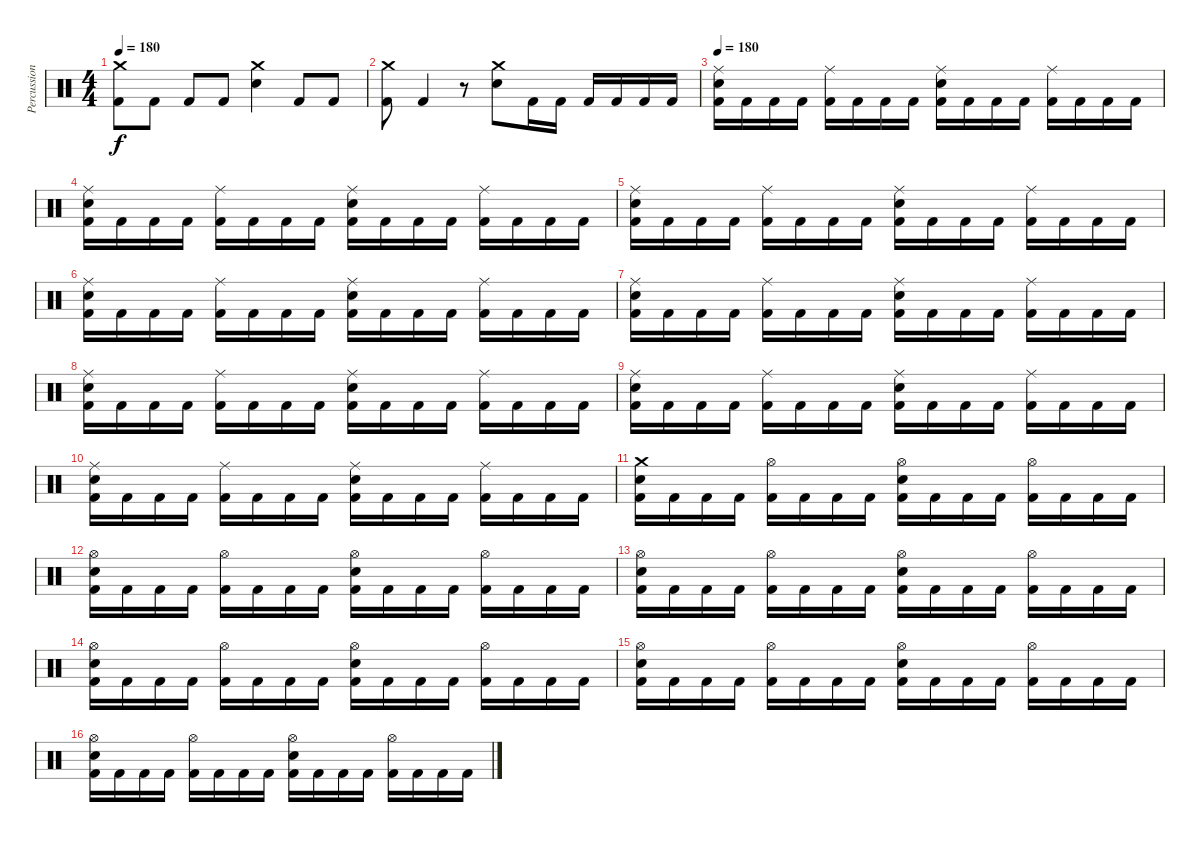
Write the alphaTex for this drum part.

\track ("Percussion" "Percussion") {instrument percussion}
\staff {score}
\articulation defaults
\ts (4 4)
\tempo 180
\clef neutral
\ks c
("Crash medium (hit)" "Kick (hit) 2").8{dy f} "Kick (hit) 2".8 "Kick (hit) 2".8 "Kick (hit) 2".8 ("Crash medium (hit)" "Electric Snare (hit)").4 "Kick (hit) 2".8 "Kick (hit) 2".8 |
("Crash medium (hit)" "Kick (hit) 2").8 "Kick (hit) 2".4 r.8 ("Crash medium (hit)" "Electric Snare (hit)").8 "Kick (hit) 2".16 "Kick (hit) 2".16 "Kick (hit) 2".16 "Kick (hit) 2".16 "Kick (hit) 2".16 "Kick (hit) 2".16 |
\tempo 180
("Ride (middle)" "Electric Snare (hit)" "Kick (hit) 2").16 "Kick (hit) 2".16 "Kick (hit) 2".16 "Kick (hit) 2".16 ("Ride (middle)" "Kick (hit) 2").16 "Kick (hit) 2".16 "Kick (hit) 2".16 "Kick (hit) 2".16 ("Ride (middle)" "Electric Snare (hit)" "Kick (hit) 2").16 "Kick (hit) 2".16 "Kick (hit) 2".16 "Kick (hit) 2".16 ("Ride (middle)" "Kick (hit) 2").16 "Kick (hit) 2".16 "Kick (hit) 2".16 "Kick (hit) 2".16 |
("Ride (middle)" "Electric Snare (hit)" "Kick (hit) 2").16 "Kick (hit) 2".16 "Kick (hit) 2".16 "Kick (hit) 2".16 ("Ride (middle)" "Kick (hit) 2").16 "Kick (hit) 2".16 "Kick (hit) 2".16 "Kick (hit) 2".16 ("Ride (middle)" "Electric Snare (hit)" "Kick (hit) 2").16 "Kick (hit) 2".16 "Kick (hit) 2".16 "Kick (hit) 2".16 ("Ride (middle)" "Kick (hit) 2").16 "Kick (hit) 2".16 "Kick (hit) 2".16 "Kick (hit) 2".16 |
("Ride (middle)" "Electric Snare (hit)" "Kick (hit) 2").16 "Kick (hit) 2".16 "Kick (hit) 2".16 "Kick (hit) 2".16 ("Ride (middle)" "Kick (hit) 2").16 "Kick (hit) 2".16 "Kick (hit) 2".16 "Kick (hit) 2".16 ("Ride (middle)" "Electric Snare (hit)" "Kick (hit) 2").16 "Kick (hit) 2".16 "Kick (hit) 2".16 "Kick (hit) 2".16 ("Ride (middle)" "Kick (hit) 2").16 "Kick (hit) 2".16 "Kick (hit) 2".16 "Kick (hit) 2".16 |
("Ride (middle)" "Electric Snare (hit)" "Kick (hit) 2").16 "Kick (hit) 2".16 "Kick (hit) 2".16 "Kick (hit) 2".16 ("Ride (middle)" "Kick (hit) 2").16 "Kick (hit) 2".16 "Kick (hit) 2".16 "Kick (hit) 2".16 ("Ride (middle)" "Electric Snare (hit)" "Kick (hit) 2").16 "Kick (hit) 2".16 "Kick (hit) 2".16 "Kick (hit) 2".16 ("Ride (middle)" "Kick (hit) 2").16 "Kick (hit) 2".16 "Kick (hit) 2".16 "Kick (hit) 2".16 |
("Ride (middle)" "Electric Snare (hit)" "Kick (hit) 2").16 "Kick (hit) 2".16 "Kick (hit) 2".16 "Kick (hit) 2".16 ("Ride (middle)" "Kick (hit) 2").16 "Kick (hit) 2".16 "Kick (hit) 2".16 "Kick (hit) 2".16 ("Ride (middle)" "Electric Snare (hit)" "Kick (hit) 2").16 "Kick (hit) 2".16 "Kick (hit) 2".16 "Kick (hit) 2".16 ("Ride (middle)" "Kick (hit) 2").16 "Kick (hit) 2".16 "Kick (hit) 2".16 "Kick (hit) 2".16 |
("Ride (middle)" "Electric Snare (hit)" "Kick (hit) 2").16 "Kick (hit) 2".16 "Kick (hit) 2".16 "Kick (hit) 2".16 ("Ride (middle)" "Kick (hit) 2").16 "Kick (hit) 2".16 "Kick (hit) 2".16 "Kick (hit) 2".16 ("Ride (middle)" "Electric Snare (hit)" "Kick (hit) 2").16 "Kick (hit) 2".16 "Kick (hit) 2".16 "Kick (hit) 2".16 ("Ride (middle)" "Kick (hit) 2").16 "Kick (hit) 2".16 "Kick (hit) 2".16 "Kick (hit) 2".16 |
("Ride (middle)" "Electric Snare (hit)" "Kick (hit) 2").16 "Kick (hit) 2".16 "Kick (hit) 2".16 "Kick (hit) 2".16 ("Ride (middle)" "Kick (hit) 2").16 "Kick (hit) 2".16 "Kick (hit) 2".16 "Kick (hit) 2".16 ("Ride (middle)" "Electric Snare (hit)" "Kick (hit) 2").16 "Kick (hit) 2".16 "Kick (hit) 2".16 "Kick (hit) 2".16 ("Ride (middle)" "Kick (hit) 2").16 "Kick (hit) 2".16 "Kick (hit) 2".16 "Kick (hit) 2".16 |
("Ride (middle)" "Electric Snare (hit)" "Kick (hit) 2").16 "Kick (hit) 2".16 "Kick (hit) 2".16 "Kick (hit) 2".16 ("Ride (middle)" "Kick (hit) 2").16 "Kick (hit) 2".16 "Kick (hit) 2".16 "Kick (hit) 2".16 ("Ride (middle)" "Electric Snare (hit)" "Kick (hit) 2").16 "Kick (hit) 2".16 "Kick (hit) 2".16 "Kick (hit) 2".16 ("Ride (middle)" "Kick (hit) 2").16 "Kick (hit) 2".16 "Kick (hit) 2".16 "Kick (hit) 2".16 |
("Crash medium (hit)" "Electric Snare (hit)" "Kick (hit) 2").16 "Kick (hit) 2".16 "Kick (hit) 2".16 "Kick (hit) 2".16 ("Hi-Hat (open)" "Kick (hit) 2").16 "Kick (hit) 2".16 "Kick (hit) 2".16 "Kick (hit) 2".16 ("Hi-Hat (open)" "Electric Snare (hit)" "Kick (hit) 2").16 "Kick (hit) 2".16 "Kick (hit) 2".16 "Kick (hit) 2".16 ("Hi-Hat (open)" "Kick (hit) 2").16 "Kick (hit) 2".16 "Kick (hit) 2".16 "Kick (hit) 2".16 |
("Hi-Hat (open)" "Electric Snare (hit)" "Kick (hit) 2").16 "Kick (hit) 2".16 "Kick (hit) 2".16 "Kick (hit) 2".16 ("Hi-Hat (open)" "Kick (hit) 2").16 "Kick (hit) 2".16 "Kick (hit) 2".16 "Kick (hit) 2".16 ("Hi-Hat (open)" "Electric Snare (hit)" "Kick (hit) 2").16 "Kick (hit) 2".16 "Kick (hit) 2".16 "Kick (hit) 2".16 ("Hi-Hat (open)" "Kick (hit) 2").16 "Kick (hit) 2".16 "Kick (hit) 2".16 "Kick (hit) 2".16 |
("Hi-Hat (open)" "Electric Snare (hit)" "Kick (hit) 2").16 "Kick (hit) 2".16 "Kick (hit) 2".16 "Kick (hit) 2".16 ("Hi-Hat (open)" "Kick (hit) 2").16 "Kick (hit) 2".16 "Kick (hit) 2".16 "Kick (hit) 2".16 ("Hi-Hat (open)" "Electric Snare (hit)" "Kick (hit) 2").16 "Kick (hit) 2".16 "Kick (hit) 2".16 "Kick (hit) 2".16 ("Hi-Hat (open)" "Kick (hit) 2").16 "Kick (hit) 2".16 "Kick (hit) 2".16 "Kick (hit) 2".16 |
("Hi-Hat (open)" "Electric Snare (hit)" "Kick (hit) 2").16 "Kick (hit) 2".16 "Kick (hit) 2".16 "Kick (hit) 2".16 ("Hi-Hat (open)" "Kick (hit) 2").16 "Kick (hit) 2".16 "Kick (hit) 2".16 "Kick (hit) 2".16 ("Hi-Hat (open)" "Electric Snare (hit)" "Kick (hit) 2").16 "Kick (hit) 2".16 "Kick (hit) 2".16 "Kick (hit) 2".16 ("Hi-Hat (open)" "Kick (hit) 2").16 "Kick (hit) 2".16 "Kick (hit) 2".16 "Kick (hit) 2".16 |
("Hi-Hat (open)" "Electric Snare (hit)" "Kick (hit) 2").16 "Kick (hit) 2".16 "Kick (hit) 2".16 "Kick (hit) 2".16 ("Hi-Hat (open)" "Kick (hit) 2").16 "Kick (hit) 2".16 "Kick (hit) 2".16 "Kick (hit) 2".16 ("Hi-Hat (open)" "Electric Snare (hit)" "Kick (hit) 2").16 "Kick (hit) 2".16 "Kick (hit) 2".16 "Kick (hit) 2".16 ("Hi-Hat (open)" "Kick (hit) 2").16 "Kick (hit) 2".16 "Kick (hit) 2".16 "Kick (hit) 2".16 |
("Hi-Hat (open)" "Electric Snare (hit)" "Kick (hit) 2").16 "Kick (hit) 2".16 "Kick (hit) 2".16 "Kick (hit) 2".16 ("Hi-Hat (open)" "Kick (hit) 2").16 "Kick (hit) 2".16 "Kick (hit) 2".16 "Kick (hit) 2".16 ("Hi-Hat (open)" "Electric Snare (hit)" "Kick (hit) 2").16 "Kick (hit) 2".16 "Kick (hit) 2".16 "Kick (hit) 2".16 ("Hi-Hat (open)" "Kick (hit) 2").16 "Kick (hit) 2".16 "Kick (hit) 2".16 "Kick (hit) 2".16
